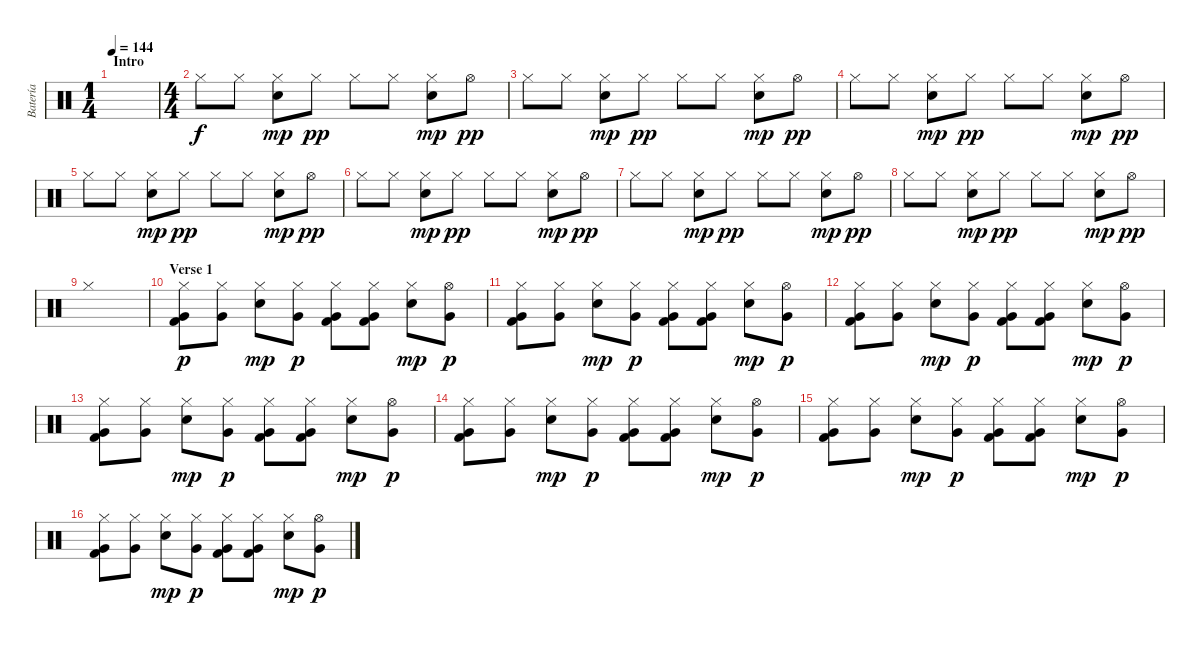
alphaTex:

\track ("Batería" "Batería") {instrument percussion}
\staff {score}
\articulation defaults
\ts (1 4)
\section ("" "Intro")
\tempo 144
\clef neutral
\ks c
|
\ts (4 4)
"Hi-Hat (closed)".8 "Hi-Hat (closed)".8 ("Hi-Hat (closed)" "Electric Snare (hit)").8{dy mp} "Hi-Hat (closed)".8{dy pp} "Hi-Hat (closed)".8 "Hi-Hat (closed)".8 ("Hi-Hat (closed)" "Electric Snare (hit)").8{dy mp} "Hi-Hat (open)".8{dy pp} |
"Hi-Hat (closed)".8 "Hi-Hat (closed)".8 ("Hi-Hat (closed)" "Electric Snare (hit)").8{dy mp} "Hi-Hat (closed)".8{dy pp} "Hi-Hat (closed)".8 "Hi-Hat (closed)".8 ("Hi-Hat (closed)" "Electric Snare (hit)").8{dy mp} "Hi-Hat (open)".8{dy pp} |
"Hi-Hat (closed)".8 "Hi-Hat (closed)".8 ("Hi-Hat (closed)" "Electric Snare (hit)").8{dy mp} "Hi-Hat (closed)".8{dy pp} "Hi-Hat (closed)".8 "Hi-Hat (closed)".8 ("Hi-Hat (closed)" "Electric Snare (hit)").8{dy mp} "Hi-Hat (open)".8{dy pp} |
"Hi-Hat (closed)".8 "Hi-Hat (closed)".8 ("Hi-Hat (closed)" "Electric Snare (hit)").8{dy mp} "Hi-Hat (closed)".8{dy pp} "Hi-Hat (closed)".8 "Hi-Hat (closed)".8 ("Hi-Hat (closed)" "Electric Snare (hit)").8{dy mp} "Hi-Hat (open)".8{dy pp} |
"Hi-Hat (closed)".8 "Hi-Hat (closed)".8 ("Hi-Hat (closed)" "Electric Snare (hit)").8{dy mp} "Hi-Hat (closed)".8{dy pp} "Hi-Hat (closed)".8 "Hi-Hat (closed)".8 ("Hi-Hat (closed)" "Electric Snare (hit)").8{dy mp} "Hi-Hat (open)".8{dy pp} |
"Hi-Hat (closed)".8 "Hi-Hat (closed)".8 ("Hi-Hat (closed)" "Electric Snare (hit)").8{dy mp} "Hi-Hat (closed)".8{dy pp} "Hi-Hat (closed)".8 "Hi-Hat (closed)".8 ("Hi-Hat (closed)" "Electric Snare (hit)").8{dy mp} "Hi-Hat (open)".8{dy pp} |
"Hi-Hat (closed)".8 "Hi-Hat (closed)".8 ("Hi-Hat (closed)" "Electric Snare (hit)").8{dy mp} "Hi-Hat (closed)".8{dy pp} "Hi-Hat (closed)".8 "Hi-Hat (closed)".8 ("Hi-Hat (closed)" "Electric Snare (hit)").8{dy mp} "Hi-Hat (open)".8{dy pp} |
"Hi-Hat (closed)".1 |
\section ("" "Verse 1")
("Hi-Hat (closed)" "Kick (hit) 2" "Very Low Tom (hit)").8{dy p} ("Hi-Hat (closed)" "Very Low Tom (hit)").8 ("Hi-Hat (closed)" "Electric Snare (hit)").8{dy mp} ("Hi-Hat (closed)" "Very Low Tom (hit)").8{dy p} ("Hi-Hat (closed)" "Kick (hit) 2" "Very Low Tom (hit)").8 ("Hi-Hat (closed)" "Kick (hit) 2" "Very Low Tom (hit)").8 ("Hi-Hat (closed)" "Electric Snare (hit)").8{dy mp} ("Hi-Hat (open)" "Very Low Tom (hit)").8{dy p} |
("Hi-Hat (closed)" "Kick (hit) 2" "Very Low Tom (hit)").8 ("Hi-Hat (closed)" "Very Low Tom (hit)").8 ("Hi-Hat (closed)" "Electric Snare (hit)").8{dy mp} ("Hi-Hat (closed)" "Very Low Tom (hit)").8{dy p} ("Hi-Hat (closed)" "Kick (hit) 2" "Very Low Tom (hit)").8 ("Hi-Hat (closed)" "Kick (hit) 2" "Very Low Tom (hit)").8 ("Hi-Hat (closed)" "Electric Snare (hit)").8{dy mp} ("Hi-Hat (open)" "Very Low Tom (hit)").8{dy p} |
("Hi-Hat (closed)" "Kick (hit) 2" "Very Low Tom (hit)").8 ("Hi-Hat (closed)" "Very Low Tom (hit)").8 ("Hi-Hat (closed)" "Electric Snare (hit)").8{dy mp} ("Hi-Hat (closed)" "Very Low Tom (hit)").8{dy p} ("Hi-Hat (closed)" "Kick (hit) 2" "Very Low Tom (hit)").8 ("Hi-Hat (closed)" "Kick (hit) 2" "Very Low Tom (hit)").8 ("Hi-Hat (closed)" "Electric Snare (hit)").8{dy mp} ("Hi-Hat (open)" "Very Low Tom (hit)").8{dy p} |
("Hi-Hat (closed)" "Kick (hit) 2" "Very Low Tom (hit)").8 ("Hi-Hat (closed)" "Very Low Tom (hit)").8 ("Hi-Hat (closed)" "Electric Snare (hit)").8{dy mp} ("Hi-Hat (closed)" "Very Low Tom (hit)").8{dy p} ("Hi-Hat (closed)" "Kick (hit) 2" "Very Low Tom (hit)").8 ("Hi-Hat (closed)" "Kick (hit) 2" "Very Low Tom (hit)").8 ("Hi-Hat (closed)" "Electric Snare (hit)").8{dy mp} ("Hi-Hat (open)" "Very Low Tom (hit)").8{dy p} |
("Hi-Hat (closed)" "Kick (hit) 2" "Very Low Tom (hit)").8 ("Hi-Hat (closed)" "Very Low Tom (hit)").8 ("Hi-Hat (closed)" "Electric Snare (hit)").8{dy mp} ("Hi-Hat (closed)" "Very Low Tom (hit)").8{dy p} ("Hi-Hat (closed)" "Kick (hit) 2" "Very Low Tom (hit)").8 ("Hi-Hat (closed)" "Kick (hit) 2" "Very Low Tom (hit)").8 ("Hi-Hat (closed)" "Electric Snare (hit)").8{dy mp} ("Hi-Hat (open)" "Very Low Tom (hit)").8{dy p} |
("Hi-Hat (closed)" "Kick (hit) 2" "Very Low Tom (hit)").8 ("Hi-Hat (closed)" "Very Low Tom (hit)").8 ("Hi-Hat (closed)" "Electric Snare (hit)").8{dy mp} ("Hi-Hat (closed)" "Very Low Tom (hit)").8{dy p} ("Hi-Hat (closed)" "Kick (hit) 2" "Very Low Tom (hit)").8 ("Hi-Hat (closed)" "Kick (hit) 2" "Very Low Tom (hit)").8 ("Hi-Hat (closed)" "Electric Snare (hit)").8{dy mp} ("Hi-Hat (open)" "Very Low Tom (hit)").8{dy p} |
("Hi-Hat (closed)" "Kick (hit) 2" "Very Low Tom (hit)").8 ("Hi-Hat (closed)" "Very Low Tom (hit)").8 ("Hi-Hat (closed)" "Electric Snare (hit)").8{dy mp} ("Hi-Hat (closed)" "Very Low Tom (hit)").8{dy p} ("Hi-Hat (closed)" "Kick (hit) 2" "Very Low Tom (hit)").8 ("Hi-Hat (closed)" "Kick (hit) 2" "Very Low Tom (hit)").8 ("Hi-Hat (closed)" "Electric Snare (hit)").8{dy mp} ("Hi-Hat (open)" "Very Low Tom (hit)").8{dy p}
